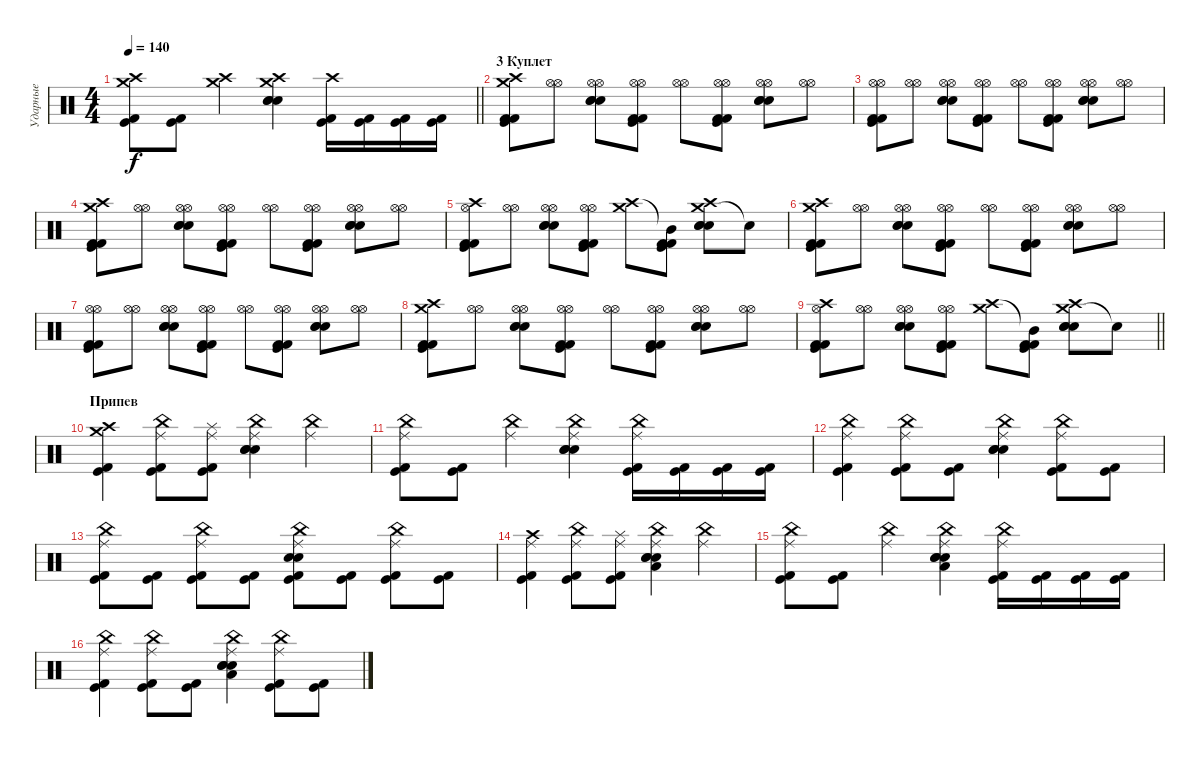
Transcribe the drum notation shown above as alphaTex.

\track ("Ударные" "Ударные") {instrument percussion}
\staff {score}
\articulation defaults
\ts (4 4)
\tempo 140
\clef neutral
\barLineRight lightlight
\ks c
("Crash high (hit)" "Crash medium (hit)" "Kick (hit)" "Kick (hit) 2").8{dy f} ("Kick (hit)" "Kick (hit) 2").8 ("Crash high (hit)" "Crash medium (hit)").4 ("Crash high (hit)" "Crash medium (hit)" "Electric Snare (hit)" "Snare (hit) 2" "Electric Snare (hit)").4 ("Crash high (hit)" "Kick (hit)" "Kick (hit) 2").16 ("Kick (hit)" "Kick (hit) 2").16 ("Kick (hit)" "Kick (hit) 2").16 ("Kick (hit)" "Kick (hit) 2").16 |
\section ("" "3 Куплет")
("Crash high (hit)" "Crash medium (hit)" "Kick (hit) 2" "Kick (hit)" "Kick (hit) 2").8 ("Hi-Hat (open)" "Hi-Hat (open)").8 ("Hi-Hat (open)" "Hi-Hat (open)" "Electric Snare (hit)" "Snare (hit) 2" "Electric Snare (hit)").8 ("Hi-Hat (open)" "Hi-Hat (open)" "Kick (hit) 2" "Kick (hit)" "Kick (hit) 2").8 ("Hi-Hat (open)" "Hi-Hat (open)").8 ("Hi-Hat (open)" "Hi-Hat (open)" "Kick (hit) 2" "Kick (hit)" "Kick (hit) 2").8 ("Hi-Hat (open)" "Hi-Hat (open)" "Electric Snare (hit)" "Snare (hit) 2" "Electric Snare (hit)").8 ("Hi-Hat (open)" "Hi-Hat (open)").8 |
("Hi-Hat (open)" "Hi-Hat (open)" "Kick (hit) 2" "Kick (hit)" "Kick (hit) 2").8 ("Hi-Hat (open)" "Hi-Hat (open)").8 ("Hi-Hat (open)" "Hi-Hat (open)" "Electric Snare (hit)" "Snare (hit) 2" "Electric Snare (hit)").8 ("Hi-Hat (open)" "Hi-Hat (open)" "Kick (hit) 2" "Kick (hit)" "Kick (hit) 2").8 ("Hi-Hat (open)" "Hi-Hat (open)").8 ("Hi-Hat (open)" "Hi-Hat (open)" "Kick (hit) 2" "Kick (hit)" "Kick (hit) 2").8 ("Hi-Hat (open)" "Hi-Hat (open)" "Electric Snare (hit)" "Snare (hit) 2" "Electric Snare (hit)").8 ("Hi-Hat (open)" "Hi-Hat (open)").8 |
("Crash high (hit)" "Crash medium (hit)" "Kick (hit) 2" "Kick (hit)" "Kick (hit) 2").8 ("Hi-Hat (open)" "Hi-Hat (open)").8 ("Hi-Hat (open)" "Hi-Hat (open)" "Electric Snare (hit)" "Snare (hit) 2" "Electric Snare (hit)").8 ("Hi-Hat (open)" "Hi-Hat (open)" "Kick (hit) 2" "Kick (hit)" "Kick (hit) 2").8 ("Hi-Hat (open)" "Hi-Hat (open)").8 ("Hi-Hat (open)" "Hi-Hat (open)" "Kick (hit) 2" "Kick (hit)" "Kick (hit) 2").8 ("Hi-Hat (open)" "Hi-Hat (open)" "Electric Snare (hit)" "Snare (hit) 2" "Electric Snare (hit)").8 ("Hi-Hat (open)" "Hi-Hat (open)").8 |
("Crash high (hit)" "Hi-Hat (open)" "Kick (hit) 2" "Kick (hit)" "Kick (hit) 2").8 ("Hi-Hat (open)" "Hi-Hat (open)").8 ("Hi-Hat (open)" "Hi-Hat (open)" "Electric Snare (hit)" "Snare (hit) 2" "Electric Snare (hit)").8 ("Hi-Hat (open)" "Hi-Hat (open)" "Kick (hit) 2" "Kick (hit)" "Kick (hit) 2").8 ("Crash high (hit)" "Crash medium (hit)").8 ("Mid Tom (hit)"{t} "Kick (hit) 2" "Kick (hit)" "Kick (hit) 2").8 ("Crash medium (hit)" "Crash high (hit)" "Electric Snare (hit)" "Snare (hit) 2" "Electric Snare (hit)").8 "Snare (hit)"{t}.8 |
("Crash high (hit)" "Crash medium (hit)" "Kick (hit) 2" "Kick (hit)" "Kick (hit) 2").8 ("Hi-Hat (open)" "Hi-Hat (open)").8 ("Hi-Hat (open)" "Hi-Hat (open)" "Electric Snare (hit)" "Snare (hit) 2" "Electric Snare (hit)").8 ("Hi-Hat (open)" "Hi-Hat (open)" "Kick (hit) 2" "Kick (hit)" "Kick (hit) 2").8 ("Hi-Hat (open)" "Hi-Hat (open)").8 ("Hi-Hat (open)" "Hi-Hat (open)" "Kick (hit) 2" "Kick (hit)" "Kick (hit) 2").8 ("Hi-Hat (open)" "Hi-Hat (open)" "Electric Snare (hit)" "Snare (hit) 2" "Electric Snare (hit)").8 ("Hi-Hat (open)" "Hi-Hat (open)").8 |
("Hi-Hat (open)" "Hi-Hat (open)" "Kick (hit) 2" "Kick (hit)" "Kick (hit) 2").8 ("Hi-Hat (open)" "Hi-Hat (open)").8 ("Hi-Hat (open)" "Hi-Hat (open)" "Electric Snare (hit)" "Snare (hit) 2" "Electric Snare (hit)").8 ("Hi-Hat (open)" "Hi-Hat (open)" "Kick (hit) 2" "Kick (hit)" "Kick (hit) 2").8 ("Hi-Hat (open)" "Hi-Hat (open)").8 ("Hi-Hat (open)" "Hi-Hat (open)" "Kick (hit) 2" "Kick (hit)" "Kick (hit) 2").8 ("Hi-Hat (open)" "Hi-Hat (open)" "Electric Snare (hit)" "Snare (hit) 2" "Electric Snare (hit)").8 ("Hi-Hat (open)" "Hi-Hat (open)").8 |
("Crash high (hit)" "Crash medium (hit)" "Kick (hit) 2" "Kick (hit)" "Kick (hit) 2").8 ("Hi-Hat (open)" "Hi-Hat (open)").8 ("Hi-Hat (open)" "Hi-Hat (open)" "Electric Snare (hit)" "Snare (hit) 2" "Electric Snare (hit)").8 ("Hi-Hat (open)" "Hi-Hat (open)" "Kick (hit) 2" "Kick (hit)" "Kick (hit) 2").8 ("Hi-Hat (open)" "Hi-Hat (open)").8 ("Hi-Hat (open)" "Hi-Hat (open)" "Kick (hit) 2" "Kick (hit)" "Kick (hit) 2").8 ("Hi-Hat (open)" "Hi-Hat (open)" "Electric Snare (hit)" "Snare (hit) 2" "Electric Snare (hit)").8 ("Hi-Hat (open)" "Hi-Hat (open)").8 |
\barLineRight lightlight
("Crash high (hit)" "Hi-Hat (open)" "Kick (hit) 2" "Kick (hit)" "Kick (hit) 2").8 ("Hi-Hat (open)" "Hi-Hat (open)").8 ("Hi-Hat (open)" "Hi-Hat (open)" "Electric Snare (hit)" "Snare (hit) 2" "Electric Snare (hit)").8 ("Hi-Hat (open)" "Hi-Hat (open)" "Kick (hit) 2" "Kick (hit)" "Kick (hit) 2").8 ("Crash high (hit)" "Crash medium (hit)").8 ("Mid Tom (hit)"{t} "Kick (hit) 2" "Kick (hit)" "Kick (hit) 2").8 ("Crash medium (hit)" "Crash high (hit)" "Electric Snare (hit)" "Snare (hit) 2" "Electric Snare (hit)").8 "Snare (hit)"{t}.8 |
\section ("" "Припев")
("Crash medium (hit)" "Crash high (hit)" "Kick (hit)" "Kick (hit) 2").4 ("China (hit)" "Ride (middle)" "Kick (hit)" "Kick (hit) 2").8 ("Splash (hit)" "Ride (middle)" "Kick (hit)" "Kick (hit) 2").8 ("China (hit)" "Ride (middle)" "Snare (hit) 2" "Electric Snare (hit)" "Electric Snare (hit)").4 ("China (hit)" "Ride (middle)").4 |
("China (hit)" "Ride (middle)" "Kick (hit)" "Kick (hit) 2").8 ("Kick (hit)" "Kick (hit) 2").8 ("China (hit)" "Ride (middle)").4 ("China (hit)" "Ride (middle)" "Snare (hit) 2" "Electric Snare (hit)" "Electric Snare (hit)").4 ("China (hit)" "Ride (middle)" "Kick (hit)" "Kick (hit) 2").16 ("Kick (hit)" "Kick (hit) 2").16 ("Kick (hit)" "Kick (hit) 2").16 ("Kick (hit)" "Kick (hit) 2").16 |
("China (hit)" "Ride (middle)" "Kick (hit)" "Kick (hit) 2").4 ("China (hit)" "Ride (middle)" "Kick (hit)" "Kick (hit) 2").8 ("Kick (hit)" "Kick (hit) 2").8 ("China (hit)" "Ride (middle)" "Snare (hit) 2" "Electric Snare (hit)" "Electric Snare (hit)").4 ("China (hit)" "Ride (middle)" "Kick (hit)" "Kick (hit) 2").8 ("Kick (hit)" "Kick (hit) 2").8 |
("China (hit)" "Ride (middle)" "Kick (hit)" "Kick (hit) 2").8 ("Kick (hit)" "Kick (hit) 2").8 ("China (hit)" "Ride (middle)" "Kick (hit)" "Kick (hit) 2").8 ("Kick (hit)" "Kick (hit) 2").8 ("China (hit)" "Ride (middle)" "Snare (hit) 2" "Electric Snare (hit)" "Kick (hit)" "Kick (hit) 2").8 ("Kick (hit)" "Kick (hit) 2").8 ("China (hit)" "Ride (middle)" "Kick (hit)" "Kick (hit) 2").8 ("Kick (hit)" "Kick (hit) 2").8 |
("Crash high (hit)" "Ride (middle)" "Kick (hit)" "Kick (hit) 2").4 ("China (hit)" "Ride (middle)" "Kick (hit)" "Kick (hit) 2").8 ("Splash (hit)" "Ride (middle)" "Kick (hit)" "Kick (hit) 2").8 ("China (hit)" "Electric Snare (hit)" "Ride (middle)" "Electric Snare (hit)" "Snare (hit) 2" "Low Floor Tom (hit)").4 ("China (hit)" "Ride (middle)").4 |
("China (hit)" "Ride (middle)" "Kick (hit)" "Kick (hit) 2").8 ("Kick (hit)" "Kick (hit) 2").8 ("China (hit)" "Ride (middle)").4 ("China (hit)" "Ride (middle)" "Electric Snare (hit)" "Electric Snare (hit)" "Snare (hit) 2" "Low Floor Tom (hit)").4 ("China (hit)" "Ride (middle)" "Kick (hit)" "Kick (hit) 2").16 ("Kick (hit)" "Kick (hit) 2").16 ("Kick (hit)" "Kick (hit) 2").16 ("Kick (hit)" "Kick (hit) 2").16 |
("China (hit)" "Ride (middle)" "Kick (hit)" "Kick (hit) 2").4 ("China (hit)" "Ride (middle)" "Kick (hit)" "Kick (hit) 2").8 ("Kick (hit)" "Kick (hit) 2").8 ("China (hit)" "Ride (middle)" "Electric Snare (hit)" "Electric Snare (hit)" "Snare (hit) 2" "Low Floor Tom (hit)").4 ("China (hit)" "Ride (middle)" "Kick (hit)" "Kick (hit) 2").8 ("Kick (hit)" "Kick (hit) 2").8
